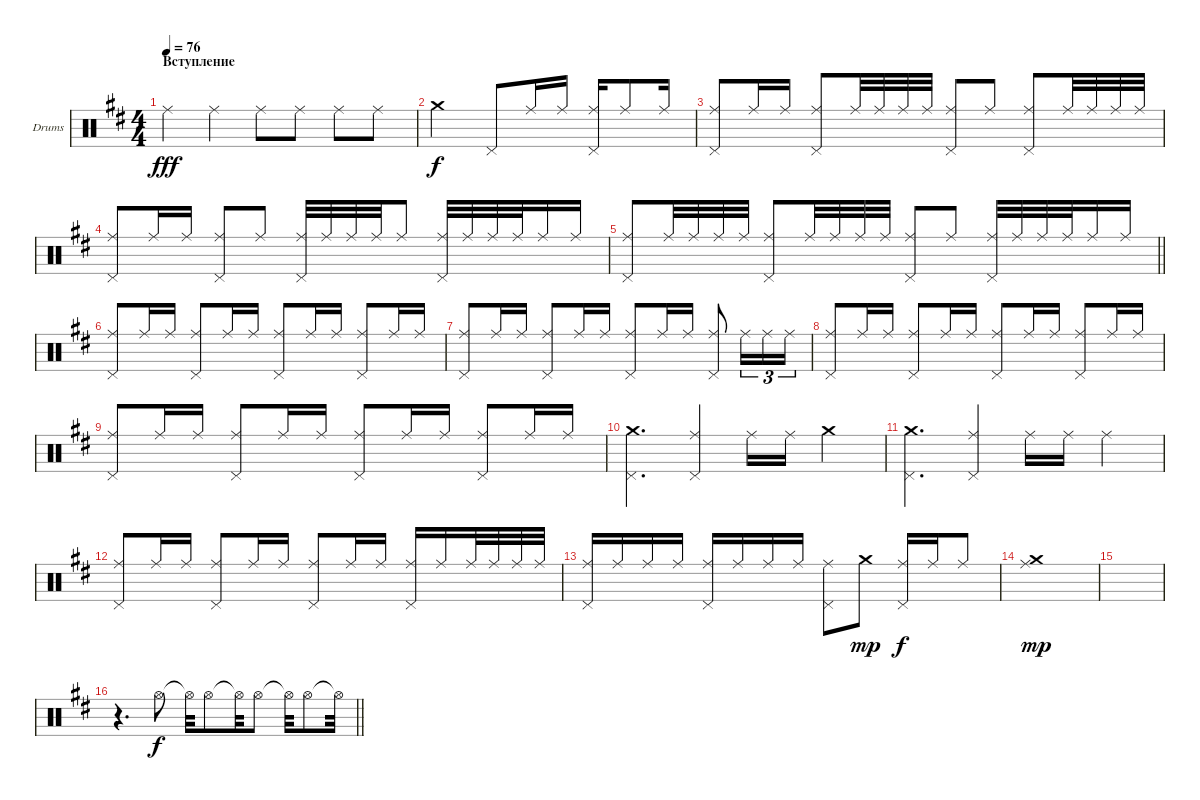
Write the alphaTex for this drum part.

\bracketExtendMode groupsimilarinstruments
\firstSystemTrackNameOrientation horizontal
\otherSystemsTrackNameOrientation horizontal
\track ("Барабаны" "Drums") {instrument percussion}
\staff {score}
\articulation defaults
\ts (4 4)
\section ("" "Вступление")
\tempo 76
\clef neutral
\ks d "Ride (middle)".4{dy fff} "Ride (middle)".4 "Ride (middle)".8 "Ride (middle)".8 "Ride (middle)".8 "Ride (middle)".8
|
"Crash medium (hit)".2{dy f} "Pedal Hi-Hat (hit)".8 "Ride (middle)".16 "Ride (middle)".16 ("Ride (middle)" "Pedal Hi-Hat (hit)").16 "Ride (middle)".8 "Ride (middle)".16 |
("Ride (middle)" "Pedal Hi-Hat (hit)").8 "Ride (middle)".16 "Ride (middle)".16 ("Ride (middle)" "Pedal Hi-Hat (hit)").8 "Ride (middle)".32 "Ride (middle)".32 "Ride (middle)".32 "Ride (middle)".32 ("Ride (middle)" "Pedal Hi-Hat (hit)").8 "Ride (middle)".8 ("Ride (middle)" "Pedal Hi-Hat (hit)").8 "Ride (middle)".32 "Ride (middle)".32 "Ride (middle)".32 "Ride (middle)".32 |
("Pedal Hi-Hat (hit)" "Ride (middle)").8 "Ride (middle)".16 "Ride (middle)".16 ("Ride (middle)" "Pedal Hi-Hat (hit)").8 "Ride (middle)".8 ("Ride (middle)" "Pedal Hi-Hat (hit)").32 "Ride (middle)".32 "Ride (middle)".32 "Ride (middle)".32 "Ride (middle)".8 ("Ride (middle)" "Pedal Hi-Hat (hit)").32 "Ride (middle)".32 "Ride (middle)".32 "Ride (middle)".32 "Ride (middle)".16 "Ride (middle)".16 |
\barLineRight lightlight
("Ride (middle)" "Pedal Hi-Hat (hit)").8 "Ride (middle)".32 "Ride (middle)".32 "Ride (middle)".32 "Ride (middle)".32 ("Ride (middle)" "Pedal Hi-Hat (hit)").8 "Ride (middle)".32 "Ride (middle)".32 "Ride (middle)".32 "Ride (middle)".32 ("Ride (middle)" "Pedal Hi-Hat (hit)").8 "Ride (middle)".8 ("Ride (middle)" "Pedal Hi-Hat (hit)").32 "Ride (middle)".32 "Ride (middle)".32 "Ride (middle)".32 "Ride (middle)".16 "Ride (middle)".16 |
("Ride (middle)" "Pedal Hi-Hat (hit)").8 "Ride (middle)".16 "Ride (middle)".16 ("Pedal Hi-Hat (hit)" "Ride (middle)").8 "Ride (middle)".16 "Ride (middle)".16 ("Ride (middle)" "Pedal Hi-Hat (hit)").8 "Ride (middle)".16 "Ride (middle)".16 ("Ride (middle)" "Pedal Hi-Hat (hit)").8 "Ride (middle)".16 "Ride (middle)".16 |
("Ride (middle)" "Pedal Hi-Hat (hit)").8 "Ride (middle)".16 "Ride (middle)".16 ("Ride (middle)" "Pedal Hi-Hat (hit)").8 "Ride (middle)".16 "Ride (middle)".16 ("Ride (middle)" "Pedal Hi-Hat (hit)").8 "Ride (middle)".16 "Ride (middle)".16 ("Ride (middle)" "Pedal Hi-Hat (hit)").8 "Ride (middle)".16{tu (3 2)} "Ride (middle)".16{tu (3 2)} "Ride (middle)".16{tu (3 2)} |
("Ride (middle)" "Pedal Hi-Hat (hit)").8 "Ride (middle)".16 "Ride (middle)".16 ("Pedal Hi-Hat (hit)" "Ride (middle)").8 "Ride (middle)".16 "Ride (middle)".16 ("Ride (middle)" "Pedal Hi-Hat (hit)").8 "Ride (middle)".16 "Ride (middle)".16 ("Ride (middle)" "Pedal Hi-Hat (hit)").8 "Ride (middle)".16 "Ride (middle)".16 |
("Ride (middle)" "Pedal Hi-Hat (hit)").8 "Ride (middle)".16 "Ride (middle)".16 ("Pedal Hi-Hat (hit)" "Ride (middle)").8 "Ride (middle)".16 "Ride (middle)".16 ("Ride (middle)" "Pedal Hi-Hat (hit)").8 "Ride (middle)".16 "Ride (middle)".16 ("Ride (middle)" "Pedal Hi-Hat (hit)").8 "Ride (middle)".16 "Ride (middle)".16 |
("Pedal Hi-Hat (hit)" "Crash medium (hit)").4{d} ("Ride (middle)" "Pedal Hi-Hat (hit)").4 "Ride (middle)".16 "Ride (middle)".16 "Crash medium (hit)".4 |
("Crash medium (hit)" "Pedal Hi-Hat (hit)").4{d} ("Ride (middle)" "Pedal Hi-Hat (hit)").4 "Ride (middle)".16 "Ride (middle)".16 "Ride (middle)".4 |
("Ride (middle)" "Pedal Hi-Hat (hit)").8 "Ride (middle)".16 "Ride (middle)".16 ("Ride (middle)" "Pedal Hi-Hat (hit)").8 "Ride (middle)".16 "Ride (middle)".16 ("Ride (middle)" "Pedal Hi-Hat (hit)").8 "Ride (middle)".16 "Ride (middle)".16 ("Ride (middle)" "Pedal Hi-Hat (hit)").16 "Ride (middle)".16 "Ride (middle)".32 "Ride (middle)".32 "Ride (middle)".32 "Ride (middle)".32 |
("Ride (middle)" "Pedal Hi-Hat (hit)").16 "Ride (middle)".16 "Ride (middle)".16 "Ride (middle)".16 ("Ride (middle)" "Pedal Hi-Hat (hit)").16 "Ride (middle)".16 "Ride (middle)".16 "Ride (middle)".16 ("Ride (middle)" "Pedal Hi-Hat (hit)").8 "Crash medium (hit)".8{dy mp} ("Ride (middle)" "Pedal Hi-Hat (hit)").16{dy f} "Ride (middle)".16 "Ride (middle)".8 |
("Ride (middle)" "Crash medium (hit)").1{dy mp} |
|
\barLineRight lightlight
r.4{d} "Hi-Hat (open)".8{dy f} "Hi-Hat (open)"{t}.32 "Hi-Hat (open)".8 "Hi-Hat (open)"{t}.32 "Hi-Hat (open)".8 "Hi-Hat (open)"{t}.32 "Hi-Hat (open)".8 "Hi-Hat (open)"{t}.32
